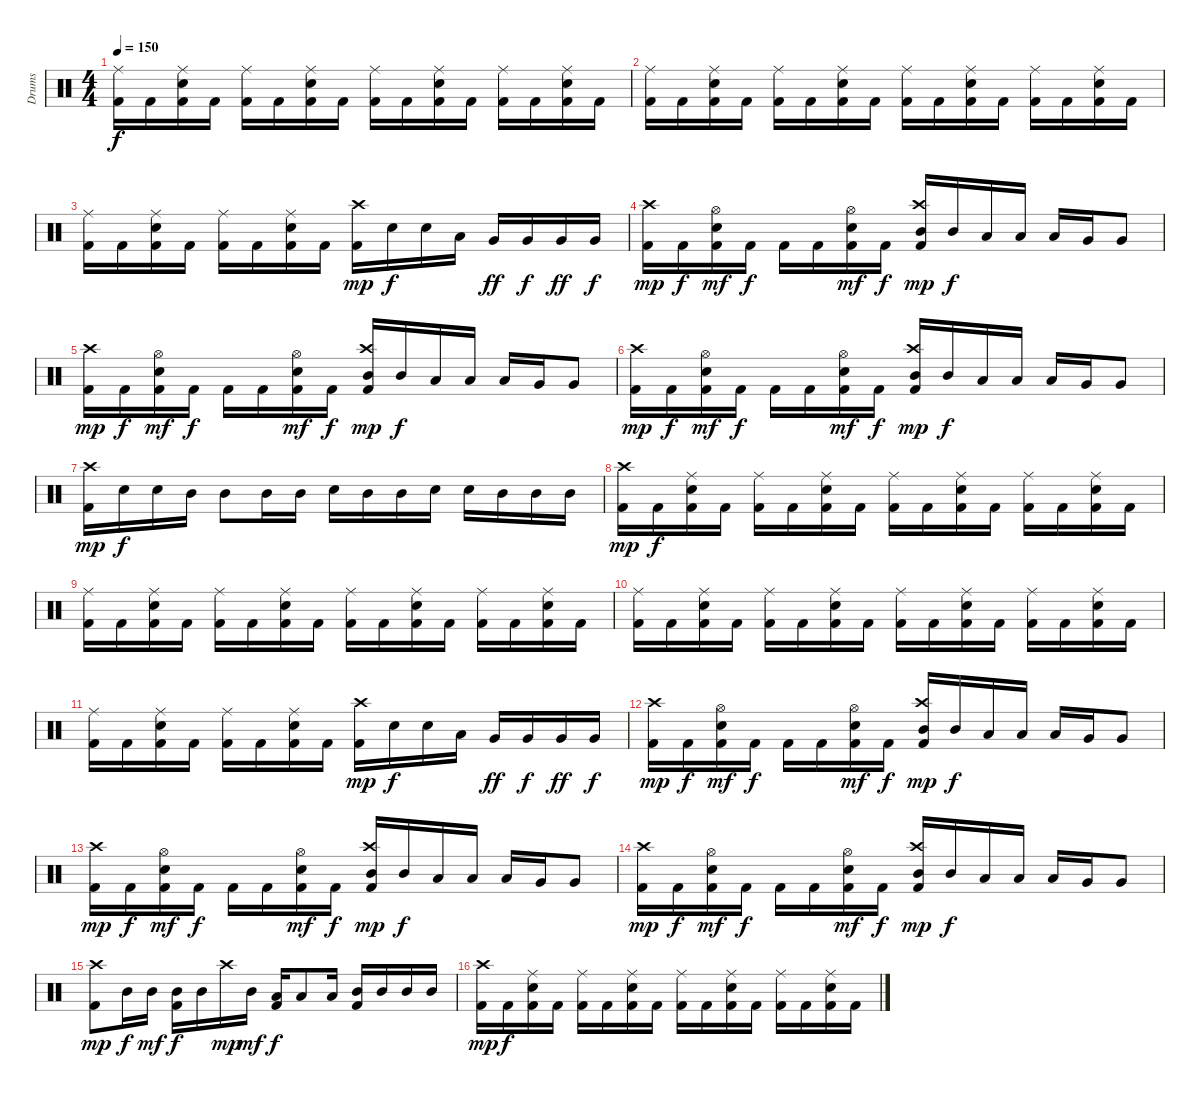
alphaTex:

\track ("Drums" "Drums") {instrument percussion}
\staff {score}
\articulation defaults
\ts (4 4)
\tempo 150
\clef neutral
\ks c
("Ride (middle)" "Kick (hit) 2").16{dy f} "Kick (hit) 2".16 ("Ride (middle)" "Electric Snare (hit)" "Kick (hit) 2").16 "Kick (hit) 2".16 ("Ride (middle)" "Kick (hit) 2").16 "Kick (hit) 2".16 ("Ride (middle)" "Electric Snare (hit)" "Kick (hit) 2").16 "Kick (hit) 2".16 ("Ride (middle)" "Kick (hit) 2").16 "Kick (hit) 2".16 ("Ride (middle)" "Electric Snare (hit)" "Kick (hit) 2").16 "Kick (hit) 2".16 ("Ride (middle)" "Kick (hit) 2").16 "Kick (hit) 2".16 ("Ride (middle)" "Electric Snare (hit)" "Kick (hit) 2").16 "Kick (hit) 2".16 |
("Ride (middle)" "Kick (hit) 2").16 "Kick (hit) 2".16 ("Ride (middle)" "Electric Snare (hit)" "Kick (hit) 2").16 "Kick (hit) 2".16 ("Ride (middle)" "Kick (hit) 2").16 "Kick (hit) 2".16 ("Ride (middle)" "Electric Snare (hit)" "Kick (hit) 2").16 "Kick (hit) 2".16 ("Ride (middle)" "Kick (hit) 2").16 "Kick (hit) 2".16 ("Ride (middle)" "Electric Snare (hit)" "Kick (hit) 2").16 "Kick (hit) 2".16 ("Ride (middle)" "Kick (hit) 2").16 "Kick (hit) 2".16 ("Ride (middle)" "Electric Snare (hit)" "Kick (hit) 2").16 "Kick (hit) 2".16 |
("Ride (middle)" "Kick (hit) 2").16 "Kick (hit) 2".16 ("Ride (middle)" "Electric Snare (hit)" "Kick (hit) 2").16 "Kick (hit) 2".16 ("Ride (middle)" "Kick (hit) 2").16 "Kick (hit) 2".16 ("Ride (middle)" "Electric Snare (hit)" "Kick (hit) 2").16 "Kick (hit) 2".16 ("Crash high (hit)" "Kick (hit) 2").16{dy mp} "Electric Snare (hit)".16{dy f} "Electric Snare (hit)".16 "Low Tom (hit)".16 "Very Low Tom (hit)".16{dy ff} "Very Low Tom (hit)".16{dy f} "Very Low Tom (hit)".16{dy ff} "Very Low Tom (hit)".16{dy f} |
("Crash high (hit)" "Kick (hit) 2").16{dy mp} "Kick (hit) 2".16{dy f} ("Hi-Hat (open)" "Electric Snare (hit)" "Kick (hit) 2").16{dy mf} "Kick (hit) 2".16{dy f} "Kick (hit) 2".16 "Kick (hit) 2".16 ("Hi-Hat (open)" "Electric Snare (hit)" "Kick (hit) 2").16{dy mf} "Kick (hit) 2".16{dy f} ("Crash high (hit)" "Mid Tom (hit)" "Kick (hit) 2").16{dy mp} "Mid Tom (hit)".16{dy f} "Low Tom (hit)".16 "Low Tom (hit)".16 "Low Tom (hit)".16 "Very Low Tom (hit)".16 "Very Low Tom (hit)".8 |
("Crash high (hit)" "Kick (hit) 2").16{dy mp} "Kick (hit) 2".16{dy f} ("Hi-Hat (open)" "Electric Snare (hit)" "Kick (hit) 2").16{dy mf} "Kick (hit) 2".16{dy f} "Kick (hit) 2".16 "Kick (hit) 2".16 ("Hi-Hat (open)" "Electric Snare (hit)" "Kick (hit) 2").16{dy mf} "Kick (hit) 2".16{dy f} ("Crash high (hit)" "Mid Tom (hit)" "Kick (hit) 2").16{dy mp} "Mid Tom (hit)".16{dy f} "Low Tom (hit)".16 "Low Tom (hit)".16 "Low Tom (hit)".16 "Very Low Tom (hit)".16 "Very Low Tom (hit)".8 |
("Crash high (hit)" "Kick (hit) 2").16{dy mp} "Kick (hit) 2".16{dy f} ("Hi-Hat (open)" "Electric Snare (hit)" "Kick (hit) 2").16{dy mf} "Kick (hit) 2".16{dy f} "Kick (hit) 2".16 "Kick (hit) 2".16 ("Hi-Hat (open)" "Electric Snare (hit)" "Kick (hit) 2").16{dy mf} "Kick (hit) 2".16{dy f} ("Crash high (hit)" "Mid Tom (hit)" "Kick (hit) 2").16{dy mp} "Mid Tom (hit)".16{dy f} "Low Tom (hit)".16 "Low Tom (hit)".16 "Low Tom (hit)".16 "Very Low Tom (hit)".16 "Very Low Tom (hit)".8 |
("Crash high (hit)" "Kick (hit) 2").16{dy mp} "Electric Snare (hit)".16{dy f} "Electric Snare (hit)".16 "Mid Tom (hit)".16 "Mid Tom (hit)".8 "Mid Tom (hit)".16 "Mid Tom (hit)".16 "Electric Snare (hit)".16 "Mid Tom (hit)".16 "Mid Tom (hit)".16 "Electric Snare (hit)".16 "Electric Snare (hit)".16 "Mid Tom (hit)".16 "Mid Tom (hit)".16 "Mid Tom (hit)".16 |
("Crash high (hit)" "Kick (hit) 2").16{dy mp} "Kick (hit) 2".16{dy f} ("Ride (middle)" "Electric Snare (hit)" "Kick (hit) 2").16 "Kick (hit) 2".16 ("Ride (middle)" "Kick (hit) 2").16 "Kick (hit) 2".16 ("Ride (middle)" "Electric Snare (hit)" "Kick (hit) 2").16 "Kick (hit) 2".16 ("Ride (middle)" "Kick (hit) 2").16 "Kick (hit) 2".16 ("Ride (middle)" "Electric Snare (hit)" "Kick (hit) 2").16 "Kick (hit) 2".16 ("Ride (middle)" "Kick (hit) 2").16 "Kick (hit) 2".16 ("Ride (middle)" "Electric Snare (hit)" "Kick (hit) 2").16 "Kick (hit) 2".16 |
("Ride (middle)" "Kick (hit) 2").16 "Kick (hit) 2".16 ("Ride (middle)" "Electric Snare (hit)" "Kick (hit) 2").16 "Kick (hit) 2".16 ("Ride (middle)" "Kick (hit) 2").16 "Kick (hit) 2".16 ("Ride (middle)" "Electric Snare (hit)" "Kick (hit) 2").16 "Kick (hit) 2".16 ("Ride (middle)" "Kick (hit) 2").16 "Kick (hit) 2".16 ("Ride (middle)" "Electric Snare (hit)" "Kick (hit) 2").16 "Kick (hit) 2".16 ("Ride (middle)" "Kick (hit) 2").16 "Kick (hit) 2".16 ("Ride (middle)" "Electric Snare (hit)" "Kick (hit) 2").16 "Kick (hit) 2".16 |
("Ride (middle)" "Kick (hit) 2").16 "Kick (hit) 2".16 ("Ride (middle)" "Electric Snare (hit)" "Kick (hit) 2").16 "Kick (hit) 2".16 ("Ride (middle)" "Kick (hit) 2").16 "Kick (hit) 2".16 ("Ride (middle)" "Electric Snare (hit)" "Kick (hit) 2").16 "Kick (hit) 2".16 ("Ride (middle)" "Kick (hit) 2").16 "Kick (hit) 2".16 ("Ride (middle)" "Electric Snare (hit)" "Kick (hit) 2").16 "Kick (hit) 2".16 ("Ride (middle)" "Kick (hit) 2").16 "Kick (hit) 2".16 ("Ride (middle)" "Electric Snare (hit)" "Kick (hit) 2").16 "Kick (hit) 2".16 |
("Ride (middle)" "Kick (hit) 2").16 "Kick (hit) 2".16 ("Ride (middle)" "Electric Snare (hit)" "Kick (hit) 2").16 "Kick (hit) 2".16 ("Ride (middle)" "Kick (hit) 2").16 "Kick (hit) 2".16 ("Ride (middle)" "Electric Snare (hit)" "Kick (hit) 2").16 "Kick (hit) 2".16 ("Crash high (hit)" "Kick (hit) 2").16{dy mp} "Electric Snare (hit)".16{dy f} "Electric Snare (hit)".16 "Low Tom (hit)".16 "Very Low Tom (hit)".16{dy ff} "Very Low Tom (hit)".16{dy f} "Very Low Tom (hit)".16{dy ff} "Very Low Tom (hit)".16{dy f} |
("Crash high (hit)" "Kick (hit) 2").16{dy mp} "Kick (hit) 2".16{dy f} ("Hi-Hat (open)" "Electric Snare (hit)" "Kick (hit) 2").16{dy mf} "Kick (hit) 2".16{dy f} "Kick (hit) 2".16 "Kick (hit) 2".16 ("Hi-Hat (open)" "Electric Snare (hit)" "Kick (hit) 2").16{dy mf} "Kick (hit) 2".16{dy f} ("Crash high (hit)" "Mid Tom (hit)" "Kick (hit) 2").16{dy mp} "Mid Tom (hit)".16{dy f} "Low Tom (hit)".16 "Low Tom (hit)".16 "Low Tom (hit)".16 "Very Low Tom (hit)".16 "Very Low Tom (hit)".8 |
("Crash high (hit)" "Kick (hit) 2").16{dy mp} "Kick (hit) 2".16{dy f} ("Hi-Hat (open)" "Electric Snare (hit)" "Kick (hit) 2").16{dy mf} "Kick (hit) 2".16{dy f} "Kick (hit) 2".16 "Kick (hit) 2".16 ("Hi-Hat (open)" "Electric Snare (hit)" "Kick (hit) 2").16{dy mf} "Kick (hit) 2".16{dy f} ("Crash high (hit)" "Mid Tom (hit)" "Kick (hit) 2").16{dy mp} "Mid Tom (hit)".16{dy f} "Low Tom (hit)".16 "Low Tom (hit)".16 "Low Tom (hit)".16 "Very Low Tom (hit)".16 "Very Low Tom (hit)".8 |
("Crash high (hit)" "Kick (hit) 2").16{dy mp} "Kick (hit) 2".16{dy f} ("Hi-Hat (open)" "Electric Snare (hit)" "Kick (hit) 2").16{dy mf} "Kick (hit) 2".16{dy f} "Kick (hit) 2".16 "Kick (hit) 2".16 ("Hi-Hat (open)" "Electric Snare (hit)" "Kick (hit) 2").16{dy mf} "Kick (hit) 2".16{dy f} ("Crash high (hit)" "Mid Tom (hit)" "Kick (hit) 2").16{dy mp} "Mid Tom (hit)".16{dy f} "Low Tom (hit)".16 "Low Tom (hit)".16 "Low Tom (hit)".16 "Very Low Tom (hit)".16 "Very Low Tom (hit)".8 |
("Crash high (hit)" "Kick (hit) 2").8{dy mp} "Mid Tom (hit)".16{dy f} "Mid Tom (hit)".16{dy mf} ("Mid Tom (hit)" "Kick (hit) 2").16{dy f} "Mid Tom (hit)".16 "Crash high (hit)".16{dy mp} "Mid Tom (hit)".16{dy mf} ("Low Tom (hit)" "Kick (hit) 2").16{dy f} "Low Tom (hit)".8 "Low Tom (hit)".16 ("Mid Tom (hit)" "Kick (hit) 2").16 "Mid Tom (hit)".16 "Mid Tom (hit)".16 "Mid Tom (hit)".16 |
("Crash high (hit)" "Kick (hit) 2").16{dy mp} "Kick (hit) 2".16{dy f} ("Ride (middle)" "Electric Snare (hit)" "Kick (hit) 2").16 "Kick (hit) 2".16 ("Ride (middle)" "Kick (hit) 2").16 "Kick (hit) 2".16 ("Ride (middle)" "Electric Snare (hit)" "Kick (hit) 2").16 "Kick (hit) 2".16 ("Ride (middle)" "Kick (hit) 2").16 "Kick (hit) 2".16 ("Ride (middle)" "Electric Snare (hit)" "Kick (hit) 2").16 "Kick (hit) 2".16 ("Ride (middle)" "Kick (hit) 2").16 "Kick (hit) 2".16 ("Ride (middle)" "Electric Snare (hit)" "Kick (hit) 2").16 "Kick (hit) 2".16
